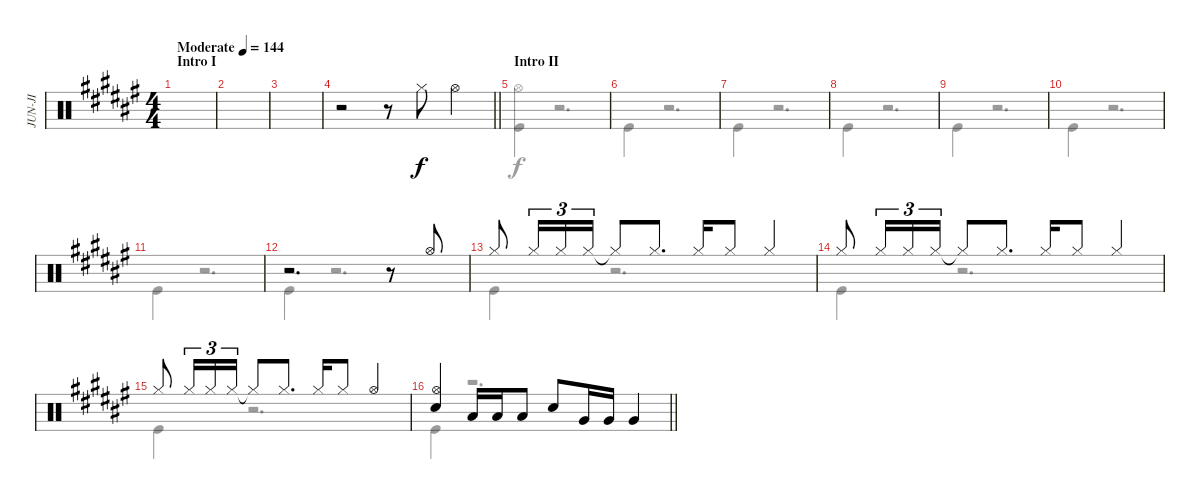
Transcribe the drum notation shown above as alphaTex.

\track ("JUN-JI" "JUN-JI") {instrument percussion}
\staff {score}
\articulation defaults
\voice
\ts (4 4)
\section ("" "Intro I")
\tempo (144 "Moderate")
\clef neutral
\ks d#minor
|
|
|
\barLineRight lightlight
r.2 r.8 "Hi-Hat (closed)".8 "Hi-Hat (open)".4 |
\section ("" "Intro II")
|
|
|
|
|
|
|
r.2{d} r.8 "Hi-Hat (open)".8 |
"Hi-Hat (closed)".8 "Hi-Hat (closed)".16{tu (3 2)} "Hi-Hat (closed)".16{tu (3 2)} "Hi-Hat (closed)".16{tu (3 2)} "Hi-Hat (closed)"{t}.8 "Hi-Hat (closed)".8{d} "Hi-Hat (closed)".16 "Hi-Hat (closed)".8 "Hi-Hat (closed)".4 |
"Hi-Hat (closed)".8 "Hi-Hat (closed)".16{tu (3 2)} "Hi-Hat (closed)".16{tu (3 2)} "Hi-Hat (closed)".16{tu (3 2)} "Hi-Hat (closed)"{t}.8 "Hi-Hat (closed)".8{d} "Hi-Hat (closed)".16 "Hi-Hat (closed)".8 "Hi-Hat (closed)".4 |
"Hi-Hat (closed)".8 "Hi-Hat (closed)".16{tu (3 2)} "Hi-Hat (closed)".16{tu (3 2)} "Hi-Hat (closed)".16{tu (3 2)} "Hi-Hat (closed)"{t}.8 "Hi-Hat (closed)".8{d} "Hi-Hat (closed)".16 "Hi-Hat (closed)".8 "Hi-Hat (open)".4 |
\barLineRight lightlight
("Hi-Hat (open)" "Snare (hit) 2").4 "Low Tom (hit)".16 "Low Tom (hit)".16 "Low Tom (hit)".8 "Snare (hit) 2".8 "Very Low Tom (hit)".16 "Very Low Tom (hit)".16 "Very Low Tom (hit)".4
\voice
\clef neutral
\ottava regular
\simile none
\ks d#minor
|
|
|
\barLineRight lightlight
|
("Hi-Hat (open)" "Kick (hit)").4 r.2{d} |
"Kick (hit)".4 r.2{d} |
"Kick (hit)".4 r.2{d} |
"Kick (hit)".4 r.2{d} |
"Kick (hit)".4 r.2{d} |
"Kick (hit)".4 r.2{d} |
"Kick (hit)".4 r.2{d} |
"Kick (hit)".4 r.2{d} |
"Kick (hit)".4 r.2{d} |
"Kick (hit)".4 r.2{d} |
"Kick (hit)".4 r.2{d} |
\barLineRight lightlight "Kick (hit)".4
r.2{d}
